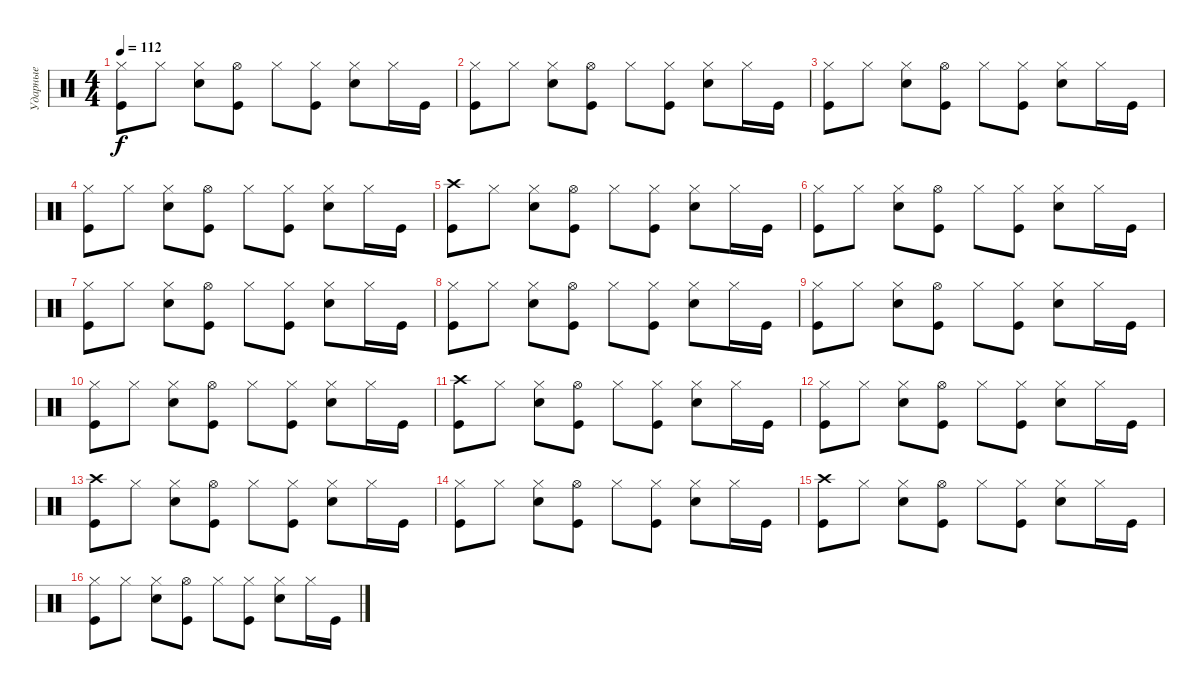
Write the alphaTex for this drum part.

\track ("Ударные" "Ударные") {instrument percussion}
\staff {score}
\articulation defaults
\ts (4 4)
\tempo 112
\clef neutral
\ks c
("Hi-Hat (closed)" "Kick (hit)").8{dy f} "Hi-Hat (closed)".8 ("Hi-Hat (closed)" "Electric Snare (hit)").8 ("Hi-Hat (open)" "Kick (hit)").8 "Hi-Hat (closed)".8 ("Hi-Hat (closed)" "Kick (hit)").8 ("Hi-Hat (closed)" "Electric Snare (hit)").8 "Hi-Hat (closed)".16 "Kick (hit)".16 |
("Hi-Hat (closed)" "Kick (hit)").8 "Hi-Hat (closed)".8 ("Hi-Hat (closed)" "Electric Snare (hit)").8 ("Hi-Hat (open)" "Kick (hit)").8 "Hi-Hat (closed)".8 ("Hi-Hat (closed)" "Kick (hit)").8 ("Hi-Hat (closed)" "Electric Snare (hit)").8 "Hi-Hat (closed)".16 "Kick (hit)".16 |
("Hi-Hat (closed)" "Kick (hit)").8 "Hi-Hat (closed)".8 ("Hi-Hat (closed)" "Electric Snare (hit)").8 ("Hi-Hat (open)" "Kick (hit)").8 "Hi-Hat (closed)".8 ("Hi-Hat (closed)" "Kick (hit)").8 ("Hi-Hat (closed)" "Electric Snare (hit)").8 "Hi-Hat (closed)".16 "Kick (hit)".16 |
("Hi-Hat (closed)" "Kick (hit)").8 "Hi-Hat (closed)".8 ("Hi-Hat (closed)" "Electric Snare (hit)").8 ("Hi-Hat (open)" "Kick (hit)").8 "Hi-Hat (closed)".8 ("Hi-Hat (closed)" "Kick (hit)").8 ("Hi-Hat (closed)" "Electric Snare (hit)").8 "Hi-Hat (closed)".16 "Kick (hit)".16 |
("Crash high (hit)" "Kick (hit)").8 "Hi-Hat (closed)".8 ("Hi-Hat (closed)" "Electric Snare (hit)").8 ("Hi-Hat (open)" "Kick (hit)").8 "Hi-Hat (closed)".8 ("Hi-Hat (closed)" "Kick (hit)").8 ("Hi-Hat (closed)" "Electric Snare (hit)").8 "Hi-Hat (closed)".16 "Kick (hit)".16 |
("Hi-Hat (closed)" "Kick (hit)").8 "Hi-Hat (closed)".8 ("Hi-Hat (closed)" "Electric Snare (hit)").8 ("Hi-Hat (open)" "Kick (hit)").8 "Hi-Hat (closed)".8 ("Hi-Hat (closed)" "Kick (hit)").8 ("Hi-Hat (closed)" "Electric Snare (hit)").8 "Hi-Hat (closed)".16 "Kick (hit)".16 |
("Hi-Hat (closed)" "Kick (hit)").8 "Hi-Hat (closed)".8 ("Hi-Hat (closed)" "Electric Snare (hit)").8 ("Hi-Hat (open)" "Kick (hit)").8 "Hi-Hat (closed)".8 ("Hi-Hat (closed)" "Kick (hit)").8 ("Hi-Hat (closed)" "Electric Snare (hit)").8 "Hi-Hat (closed)".16 "Kick (hit)".16 |
("Hi-Hat (closed)" "Kick (hit)").8 "Hi-Hat (closed)".8 ("Hi-Hat (closed)" "Electric Snare (hit)").8 ("Hi-Hat (open)" "Kick (hit)").8 "Hi-Hat (closed)".8 ("Hi-Hat (closed)" "Kick (hit)").8 ("Hi-Hat (closed)" "Electric Snare (hit)").8 "Hi-Hat (closed)".16 "Kick (hit)".16 |
("Hi-Hat (closed)" "Kick (hit)").8 "Hi-Hat (closed)".8 ("Hi-Hat (closed)" "Electric Snare (hit)").8 ("Hi-Hat (open)" "Kick (hit)").8 "Hi-Hat (closed)".8 ("Hi-Hat (closed)" "Kick (hit)").8 ("Hi-Hat (closed)" "Electric Snare (hit)").8 "Hi-Hat (closed)".16 "Kick (hit)".16 |
("Hi-Hat (closed)" "Kick (hit)").8 "Hi-Hat (closed)".8 ("Hi-Hat (closed)" "Electric Snare (hit)").8 ("Hi-Hat (open)" "Kick (hit)").8 "Hi-Hat (closed)".8 ("Hi-Hat (closed)" "Kick (hit)").8 ("Hi-Hat (closed)" "Electric Snare (hit)").8 "Hi-Hat (closed)".16 "Kick (hit)".16 |
("Crash high (hit)" "Kick (hit)").8 "Hi-Hat (closed)".8 ("Hi-Hat (closed)" "Electric Snare (hit)").8 ("Hi-Hat (open)" "Kick (hit)").8 "Hi-Hat (closed)".8 ("Hi-Hat (closed)" "Kick (hit)").8 ("Hi-Hat (closed)" "Electric Snare (hit)").8 "Hi-Hat (closed)".16 "Kick (hit)".16 |
("Hi-Hat (closed)" "Kick (hit)").8 "Hi-Hat (closed)".8 ("Hi-Hat (closed)" "Electric Snare (hit)").8 ("Hi-Hat (open)" "Kick (hit)").8 "Hi-Hat (closed)".8 ("Hi-Hat (closed)" "Kick (hit)").8 ("Hi-Hat (closed)" "Electric Snare (hit)").8 "Hi-Hat (closed)".16 "Kick (hit)".16 |
("Crash high (hit)" "Kick (hit)").8 "Hi-Hat (closed)".8 ("Hi-Hat (closed)" "Electric Snare (hit)").8 ("Hi-Hat (open)" "Kick (hit)").8 "Hi-Hat (closed)".8 ("Hi-Hat (closed)" "Kick (hit)").8 ("Hi-Hat (closed)" "Electric Snare (hit)").8 "Hi-Hat (closed)".16 "Kick (hit)".16 |
("Hi-Hat (closed)" "Kick (hit)").8 "Hi-Hat (closed)".8 ("Hi-Hat (closed)" "Electric Snare (hit)").8 ("Hi-Hat (open)" "Kick (hit)").8 "Hi-Hat (closed)".8 ("Hi-Hat (closed)" "Kick (hit)").8 ("Hi-Hat (closed)" "Electric Snare (hit)").8 "Hi-Hat (closed)".16 "Kick (hit)".16 |
("Crash high (hit)" "Kick (hit)").8 "Hi-Hat (closed)".8 ("Hi-Hat (closed)" "Electric Snare (hit)").8 ("Hi-Hat (open)" "Kick (hit)").8 "Hi-Hat (closed)".8 ("Hi-Hat (closed)" "Kick (hit)").8 ("Hi-Hat (closed)" "Electric Snare (hit)").8 "Hi-Hat (closed)".16 "Kick (hit)".16 |
("Hi-Hat (closed)" "Kick (hit)").8 "Hi-Hat (closed)".8 ("Hi-Hat (closed)" "Electric Snare (hit)").8 ("Hi-Hat (open)" "Kick (hit)").8 "Hi-Hat (closed)".8 ("Hi-Hat (closed)" "Kick (hit)").8 ("Hi-Hat (closed)" "Electric Snare (hit)").8 "Hi-Hat (closed)".16 "Kick (hit)".16
